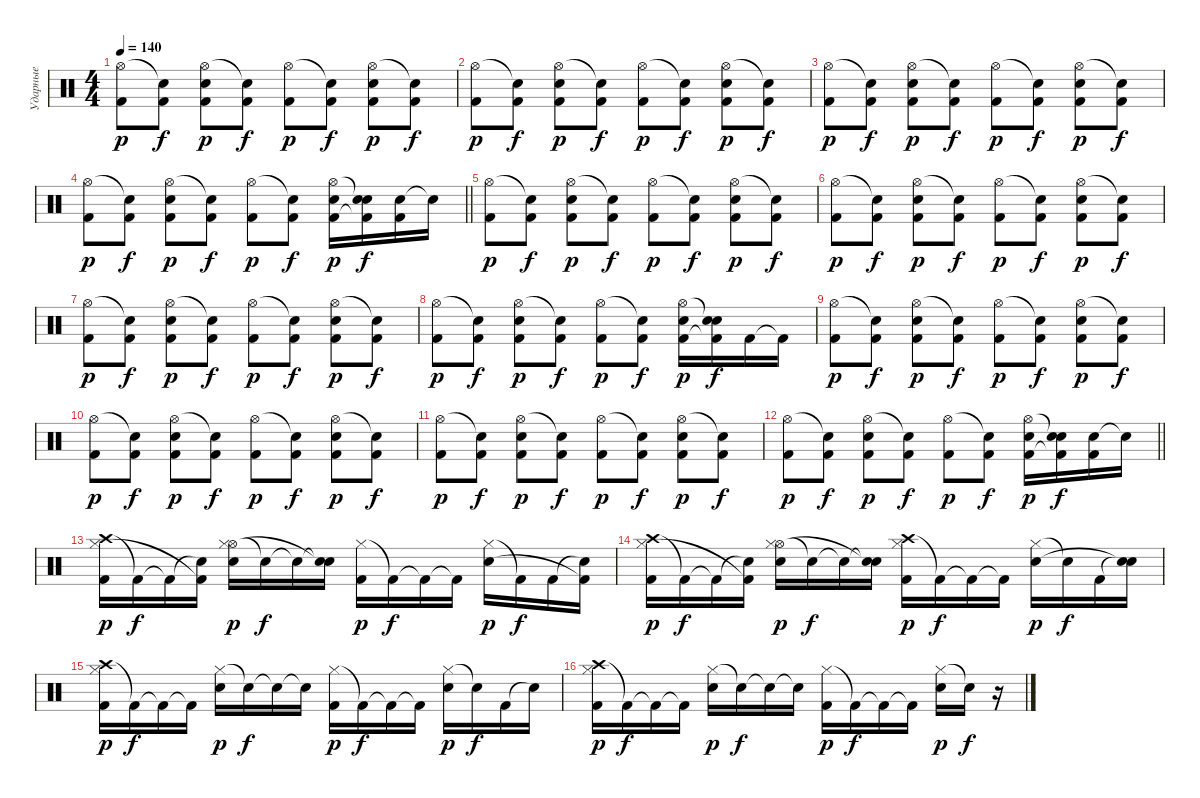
\track ("Ударные" "Ударные") {instrument percussion}
\staff {score}
\articulation defaults
\ts (4 4)
\tempo 140
\clef neutral
\ks c
("Hi-Hat (open)" "Kick (hit) 2").8{dy p} ("Snare (hit)"{t} "Kick (hit) 2").8{dy f} ("Hi-Hat (open)" "Electric Snare (hit)" "Kick (hit) 2").8{dy p} ("Snare (hit)"{t} "Kick (hit) 2").8{dy f} ("Hi-Hat (open)" "Kick (hit) 2").8{dy p} ("Snare (hit)"{t} "Kick (hit) 2").8{dy f} ("Hi-Hat (open)" "Electric Snare (hit)" "Kick (hit) 2").8{dy p} ("Snare (hit)"{t} "Kick (hit) 2").8{dy f} |
("Hi-Hat (open)" "Kick (hit) 2").8{dy p} ("Snare (hit)"{t} "Kick (hit) 2").8{dy f} ("Hi-Hat (open)" "Electric Snare (hit)" "Kick (hit) 2").8{dy p} ("Snare (hit)"{t} "Kick (hit) 2").8{dy f} ("Hi-Hat (open)" "Kick (hit) 2").8{dy p} ("Snare (hit)"{t} "Kick (hit) 2").8{dy f} ("Hi-Hat (open)" "Electric Snare (hit)" "Kick (hit) 2").8{dy p} ("Snare (hit)"{t} "Kick (hit) 2").8{dy f} |
("Hi-Hat (open)" "Kick (hit) 2").8{dy p} ("Snare (hit)"{t} "Kick (hit) 2").8{dy f} ("Hi-Hat (open)" "Electric Snare (hit)" "Kick (hit) 2").8{dy p} ("Snare (hit)"{t} "Kick (hit) 2").8{dy f} ("Hi-Hat (open)" "Kick (hit) 2").8{dy p} ("Snare (hit)"{t} "Kick (hit) 2").8{dy f} ("Hi-Hat (open)" "Electric Snare (hit)" "Kick (hit) 2").8{dy p} ("Snare (hit)"{t} "Kick (hit) 2").8{dy f} |
\barLineRight lightlight
("Hi-Hat (open)" "Kick (hit) 2").8{dy p} ("Snare (hit)"{t} "Kick (hit) 2").8{dy f} ("Hi-Hat (open)" "Electric Snare (hit)" "Kick (hit) 2").8{dy p} ("Snare (hit)"{t} "Kick (hit) 2").8{dy f} ("Hi-Hat (open)" "Kick (hit) 2").8{dy p} ("Snare (hit)"{t} "Kick (hit) 2").8{dy f} ("Hi-Hat (open)" "Electric Snare (hit)" "Kick (hit) 2").16{dy p} ("Snare (hit)"{t} "Electric Snare (hit)" "Kick (hit) 2"{t}).16{dy f} ("Electric Snare (hit)" "Kick (hit) 2").16 "Snare (hit)"{t}.16 |
("Hi-Hat (open)" "Kick (hit) 2").8{dy p} ("Snare (hit)"{t} "Kick (hit) 2").8{dy f} ("Hi-Hat (open)" "Electric Snare (hit)" "Kick (hit) 2").8{dy p} ("Snare (hit)"{t} "Kick (hit) 2").8{dy f} ("Hi-Hat (open)" "Kick (hit) 2").8{dy p} ("Snare (hit)"{t} "Kick (hit) 2").8{dy f} ("Hi-Hat (open)" "Electric Snare (hit)" "Kick (hit) 2").8{dy p} ("Snare (hit)"{t} "Kick (hit) 2").8{dy f} |
("Hi-Hat (open)" "Kick (hit) 2").8{dy p} ("Snare (hit)"{t} "Kick (hit) 2").8{dy f} ("Hi-Hat (open)" "Electric Snare (hit)" "Kick (hit) 2").8{dy p} ("Snare (hit)"{t} "Kick (hit) 2").8{dy f} ("Hi-Hat (open)" "Kick (hit) 2").8{dy p} ("Snare (hit)"{t} "Kick (hit) 2").8{dy f} ("Hi-Hat (open)" "Electric Snare (hit)" "Kick (hit) 2").8{dy p} ("Snare (hit)"{t} "Kick (hit) 2").8{dy f} |
("Hi-Hat (open)" "Kick (hit) 2").8{dy p} ("Snare (hit)"{t} "Kick (hit) 2").8{dy f} ("Hi-Hat (open)" "Electric Snare (hit)" "Kick (hit) 2").8{dy p} ("Snare (hit)"{t} "Kick (hit) 2").8{dy f} ("Hi-Hat (open)" "Kick (hit) 2").8{dy p} ("Snare (hit)"{t} "Kick (hit) 2").8{dy f} ("Hi-Hat (open)" "Electric Snare (hit)" "Kick (hit) 2").8{dy p} ("Snare (hit)"{t} "Kick (hit) 2").8{dy f} |
("Hi-Hat (open)" "Kick (hit) 2").8{dy p} ("Snare (hit)"{t} "Kick (hit) 2").8{dy f} ("Hi-Hat (open)" "Electric Snare (hit)" "Kick (hit) 2").8{dy p} ("Snare (hit)"{t} "Kick (hit) 2").8{dy f} ("Hi-Hat (open)" "Kick (hit) 2").8{dy p} ("Snare (hit)"{t} "Kick (hit) 2").8{dy f} ("Hi-Hat (open)" "Electric Snare (hit)" "Kick (hit) 2").16{dy p} ("Snare (hit)"{t} "Electric Snare (hit)" "Kick (hit) 2"{t}).16{dy f} "Kick (hit) 2".16 "Kick (hit) 2"{t}.16 |
("Hi-Hat (open)" "Kick (hit) 2").8{dy p} ("Snare (hit)"{t} "Kick (hit) 2").8{dy f} ("Hi-Hat (open)" "Electric Snare (hit)" "Kick (hit) 2").8{dy p} ("Snare (hit)"{t} "Kick (hit) 2").8{dy f} ("Hi-Hat (open)" "Kick (hit) 2").8{dy p} ("Snare (hit)"{t} "Kick (hit) 2").8{dy f} ("Hi-Hat (open)" "Electric Snare (hit)" "Kick (hit) 2").8{dy p} ("Snare (hit)"{t} "Kick (hit) 2").8{dy f} |
("Hi-Hat (open)" "Kick (hit) 2").8{dy p} ("Snare (hit)"{t} "Kick (hit) 2").8{dy f} ("Hi-Hat (open)" "Electric Snare (hit)" "Kick (hit) 2").8{dy p} ("Snare (hit)"{t} "Kick (hit) 2").8{dy f} ("Hi-Hat (open)" "Kick (hit) 2").8{dy p} ("Snare (hit)"{t} "Kick (hit) 2").8{dy f} ("Hi-Hat (open)" "Electric Snare (hit)" "Kick (hit) 2").8{dy p} ("Snare (hit)"{t} "Kick (hit) 2").8{dy f} |
("Hi-Hat (open)" "Kick (hit) 2").8{dy p} ("Snare (hit)"{t} "Kick (hit) 2").8{dy f} ("Hi-Hat (open)" "Electric Snare (hit)" "Kick (hit) 2").8{dy p} ("Snare (hit)"{t} "Kick (hit) 2").8{dy f} ("Hi-Hat (open)" "Kick (hit) 2").8{dy p} ("Snare (hit)"{t} "Kick (hit) 2").8{dy f} ("Hi-Hat (open)" "Electric Snare (hit)" "Kick (hit) 2").8{dy p} ("Snare (hit)"{t} "Kick (hit) 2").8{dy f} |
\barLineRight lightlight
("Hi-Hat (open)" "Kick (hit) 2").8{dy p} ("Snare (hit)"{t} "Kick (hit) 2").8{dy f} ("Hi-Hat (open)" "Electric Snare (hit)" "Kick (hit) 2").8{dy p} ("Snare (hit)"{t} "Kick (hit) 2").8{dy f} ("Hi-Hat (open)" "Kick (hit) 2").8{dy p} ("Snare (hit)"{t} "Kick (hit) 2").8{dy f} ("Hi-Hat (open)" "Electric Snare (hit)" "Kick (hit) 2").16{dy p} ("Snare (hit)"{t} "Electric Snare (hit)" "Kick (hit) 2"{t}).16{dy f} ("Electric Snare (hit)" "Kick (hit) 2").16 "Snare (hit)"{t}.16 |
("Crash high (hit)" "Hi-Hat (closed)" "Kick (hit) 2").16{dy p} "Kick (hit) 2"{t}.16{dy f} "Kick (hit) 2"{t}.16 ("Snare (hit)"{t} "Kick (hit) 2"{t}).16 ("Hi-Hat (open)" "Hi-Hat (closed)" "Electric Snare (hit)").16{dy p} "Snare (hit)"{t}.16{dy f} "Snare (hit)"{t}.16 ("Snare (hit)"{t} "Snare (hit)"{t}).16 ("Hi-Hat (closed)" "Kick (hit) 2").16{dy p} "Kick (hit) 2"{t}.16{dy f} "Kick (hit) 2"{t}.16 "Kick (hit) 2"{t}.16 ("Hi-Hat (closed)" "Electric Snare (hit)").16{dy p} "Kick (hit) 2"{t}.16{dy f} "Kick (hit) 2".16 ("Snare (hit)"{t} "Kick (hit) 2"{t}).16 |
("Crash high (hit)" "Hi-Hat (closed)" "Kick (hit) 2").16{dy p} "Kick (hit) 2"{t}.16{dy f} "Kick (hit) 2"{t}.16 ("Snare (hit)"{t} "Kick (hit) 2"{t}).16 ("Hi-Hat (open)" "Hi-Hat (closed)" "Electric Snare (hit)").16{dy p} "Snare (hit)"{t}.16{dy f} "Snare (hit)"{t}.16 ("Snare (hit)"{t} "Snare (hit)"{t}).16 ("Crash high (hit)" "Hi-Hat (closed)" "Kick (hit) 2").16{dy p} "Kick (hit) 2"{t}.16{dy f} "Kick (hit) 2"{t}.16 "Kick (hit) 2"{t}.16 ("Hi-Hat (closed)" "Electric Snare (hit)").16{dy p} "Snare (hit)"{t}.16{dy f} "Kick (hit) 2".16 ("Snare (hit)"{t} "Snare (hit)"{t}).16 |
("Crash high (hit)" "Hi-Hat (closed)" "Kick (hit) 2").16{dy p} "Kick (hit) 2"{t}.16{dy f} "Kick (hit) 2"{t}.16 "Kick (hit) 2"{t}.16 ("Hi-Hat (closed)" "Electric Snare (hit)").16{dy p} "Snare (hit)"{t}.16{dy f} "Snare (hit)"{t}.16 "Snare (hit)"{t}.16 ("Hi-Hat (closed)" "Kick (hit) 2").16{dy p} "Kick (hit) 2"{t}.16{dy f} "Kick (hit) 2"{t}.16 "Kick (hit) 2"{t}.16 ("Hi-Hat (closed)" "Electric Snare (hit)").16{dy p} "Snare (hit)"{t}.16{dy f} "Kick (hit) 2".16 "Snare (hit)"{t}.16 |
("Crash high (hit)" "Hi-Hat (closed)" "Kick (hit) 2").16{dy p} "Kick (hit) 2"{t}.16{dy f} "Kick (hit) 2"{t}.16 "Kick (hit) 2"{t}.16 ("Hi-Hat (closed)" "Electric Snare (hit)").16{dy p} "Snare (hit)"{t}.16{dy f} "Snare (hit)"{t}.16 "Snare (hit)"{t}.16 ("Hi-Hat (closed)" "Kick (hit) 2").16{dy p} "Kick (hit) 2"{t}.16{dy f} "Kick (hit) 2"{t}.16 "Kick (hit) 2"{t}.16 ("Hi-Hat (closed)" "Electric Snare (hit)").16{dy p} "Snare (hit)"{t}.16{dy f} r.16
